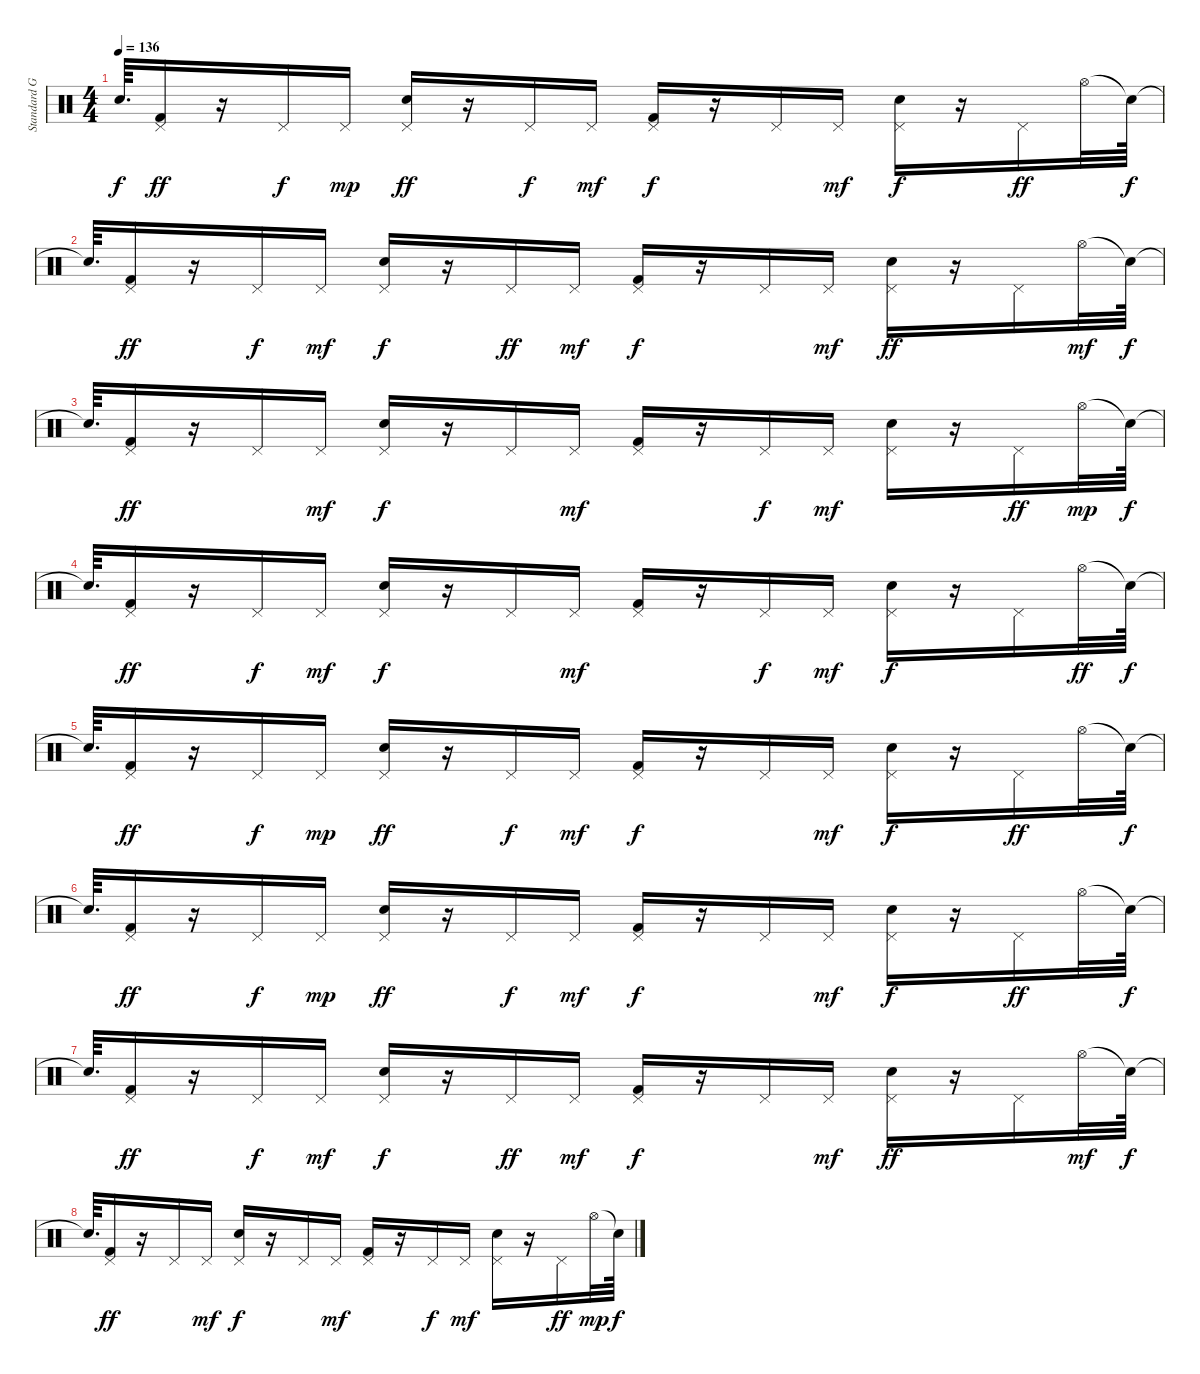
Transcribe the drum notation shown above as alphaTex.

\track ("Standard GM Drum Kit" "Standard G") {instrument percussion}
\staff {score}
\articulation defaults
\ts (4 4)
\tempo 136
\clef neutral
\ks c "Snare (hit)"{t}.64{d dy f}
("Pedal Hi-Hat (hit)" "Kick (hit) 2").16{dy ff} r.16 "Pedal Hi-Hat (hit)".16{dy f} "Pedal Hi-Hat (hit)".16{dy mp} ("Pedal Hi-Hat (hit)" "Electric Snare (hit)").16{dy ff} r.16 "Pedal Hi-Hat (hit)".16{dy f} "Pedal Hi-Hat (hit)".16{dy mf} ("Kick (hit) 2" "Pedal Hi-Hat (hit)").16{dy f} r.16 "Pedal Hi-Hat (hit)".16 "Pedal Hi-Hat (hit)".16{dy mf} ("Electric Snare (hit)" "Pedal Hi-Hat (hit)").16{dy f} r.16 "Pedal Hi-Hat (hit)".16{dy ff} "Hi-Hat (open)".32 "Snare (hit)"{t}.64{dy f} |
"Snare (hit)"{t}.64{d} ("Pedal Hi-Hat (hit)" "Kick (hit) 2").16{dy ff} r.16 "Pedal Hi-Hat (hit)".16{dy f} "Pedal Hi-Hat (hit)".16{dy mf} ("Pedal Hi-Hat (hit)" "Electric Snare (hit)").16{dy f} r.16 "Pedal Hi-Hat (hit)".16{dy ff} "Pedal Hi-Hat (hit)".16{dy mf} ("Kick (hit) 2" "Pedal Hi-Hat (hit)").16{dy f} r.16 "Pedal Hi-Hat (hit)".16 "Pedal Hi-Hat (hit)".16{dy mf} ("Electric Snare (hit)" "Pedal Hi-Hat (hit)").16{dy ff} r.16 "Pedal Hi-Hat (hit)".16 "Hi-Hat (open)".32{dy mf} "Snare (hit)"{t}.64{dy f} |
"Snare (hit)"{t}.64{d} ("Pedal Hi-Hat (hit)" "Kick (hit) 2").16{dy ff} r.16 "Pedal Hi-Hat (hit)".16 "Pedal Hi-Hat (hit)".16{dy mf} ("Pedal Hi-Hat (hit)" "Electric Snare (hit)").16{dy f} r.16 "Pedal Hi-Hat (hit)".16 "Pedal Hi-Hat (hit)".16{dy mf} ("Kick (hit) 2" "Pedal Hi-Hat (hit)").16 r.16 "Pedal Hi-Hat (hit)".16{dy f} "Pedal Hi-Hat (hit)".16{dy mf} ("Electric Snare (hit)" "Pedal Hi-Hat (hit)").16 r.16 "Pedal Hi-Hat (hit)".16{dy ff} "Hi-Hat (open)".32{dy mp} "Snare (hit)"{t}.64{dy f} |
"Snare (hit)"{t}.64{d} ("Pedal Hi-Hat (hit)" "Kick (hit) 2").16{dy ff} r.16 "Pedal Hi-Hat (hit)".16{dy f} "Pedal Hi-Hat (hit)".16{dy mf} ("Pedal Hi-Hat (hit)" "Electric Snare (hit)").16{dy f} r.16 "Pedal Hi-Hat (hit)".16 "Pedal Hi-Hat (hit)".16{dy mf} ("Pedal Hi-Hat (hit)" "Kick (hit) 2").16 r.16 "Pedal Hi-Hat (hit)".16{dy f} "Pedal Hi-Hat (hit)".16{dy mf} ("Pedal Hi-Hat (hit)" "Electric Snare (hit)").16{dy f} r.16 "Pedal Hi-Hat (hit)".16 "Hi-Hat (open)".32{dy ff} "Snare (hit)"{t}.64{dy f} |
"Snare (hit)"{t}.64{d} ("Pedal Hi-Hat (hit)" "Kick (hit) 2").16{dy ff} r.16 "Pedal Hi-Hat (hit)".16{dy f} "Pedal Hi-Hat (hit)".16{dy mp} ("Pedal Hi-Hat (hit)" "Electric Snare (hit)").16{dy ff} r.16 "Pedal Hi-Hat (hit)".16{dy f} "Pedal Hi-Hat (hit)".16{dy mf} ("Kick (hit) 2" "Pedal Hi-Hat (hit)").16{dy f} r.16 "Pedal Hi-Hat (hit)".16 "Pedal Hi-Hat (hit)".16{dy mf} ("Electric Snare (hit)" "Pedal Hi-Hat (hit)").16{dy f} r.16 "Pedal Hi-Hat (hit)".16{dy ff} "Hi-Hat (open)".32 "Snare (hit)"{t}.64{dy f} |
"Snare (hit)"{t}.64{d} ("Pedal Hi-Hat (hit)" "Kick (hit) 2").16{dy ff} r.16 "Pedal Hi-Hat (hit)".16{dy f} "Pedal Hi-Hat (hit)".16{dy mp} ("Pedal Hi-Hat (hit)" "Electric Snare (hit)").16{dy ff} r.16 "Pedal Hi-Hat (hit)".16{dy f} "Pedal Hi-Hat (hit)".16{dy mf} ("Kick (hit) 2" "Pedal Hi-Hat (hit)").16{dy f} r.16 "Pedal Hi-Hat (hit)".16 "Pedal Hi-Hat (hit)".16{dy mf} ("Electric Snare (hit)" "Pedal Hi-Hat (hit)").16{dy f} r.16 "Pedal Hi-Hat (hit)".16{dy ff} "Hi-Hat (open)".32 "Snare (hit)"{t}.64{dy f} |
"Snare (hit)"{t}.64{d} ("Pedal Hi-Hat (hit)" "Kick (hit) 2").16{dy ff} r.16 "Pedal Hi-Hat (hit)".16{dy f} "Pedal Hi-Hat (hit)".16{dy mf} ("Pedal Hi-Hat (hit)" "Electric Snare (hit)").16{dy f} r.16 "Pedal Hi-Hat (hit)".16{dy ff} "Pedal Hi-Hat (hit)".16{dy mf} ("Kick (hit) 2" "Pedal Hi-Hat (hit)").16{dy f} r.16 "Pedal Hi-Hat (hit)".16 "Pedal Hi-Hat (hit)".16{dy mf} ("Electric Snare (hit)" "Pedal Hi-Hat (hit)").16{dy ff} r.16 "Pedal Hi-Hat (hit)".16 "Hi-Hat (open)".32{dy mf} "Snare (hit)"{t}.64{dy f} |
"Snare (hit)"{t}.64{d} ("Pedal Hi-Hat (hit)" "Kick (hit) 2").16{dy ff} r.16 "Pedal Hi-Hat (hit)".16 "Pedal Hi-Hat (hit)".16{dy mf} ("Pedal Hi-Hat (hit)" "Electric Snare (hit)").16{dy f} r.16 "Pedal Hi-Hat (hit)".16 "Pedal Hi-Hat (hit)".16{dy mf} ("Kick (hit) 2" "Pedal Hi-Hat (hit)").16 r.16 "Pedal Hi-Hat (hit)".16{dy f} "Pedal Hi-Hat (hit)".16{dy mf} ("Electric Snare (hit)" "Pedal Hi-Hat (hit)").16 r.16 "Pedal Hi-Hat (hit)".16{dy ff} "Hi-Hat (open)".32{dy mp} "Snare (hit)"{t}.64{dy f}
